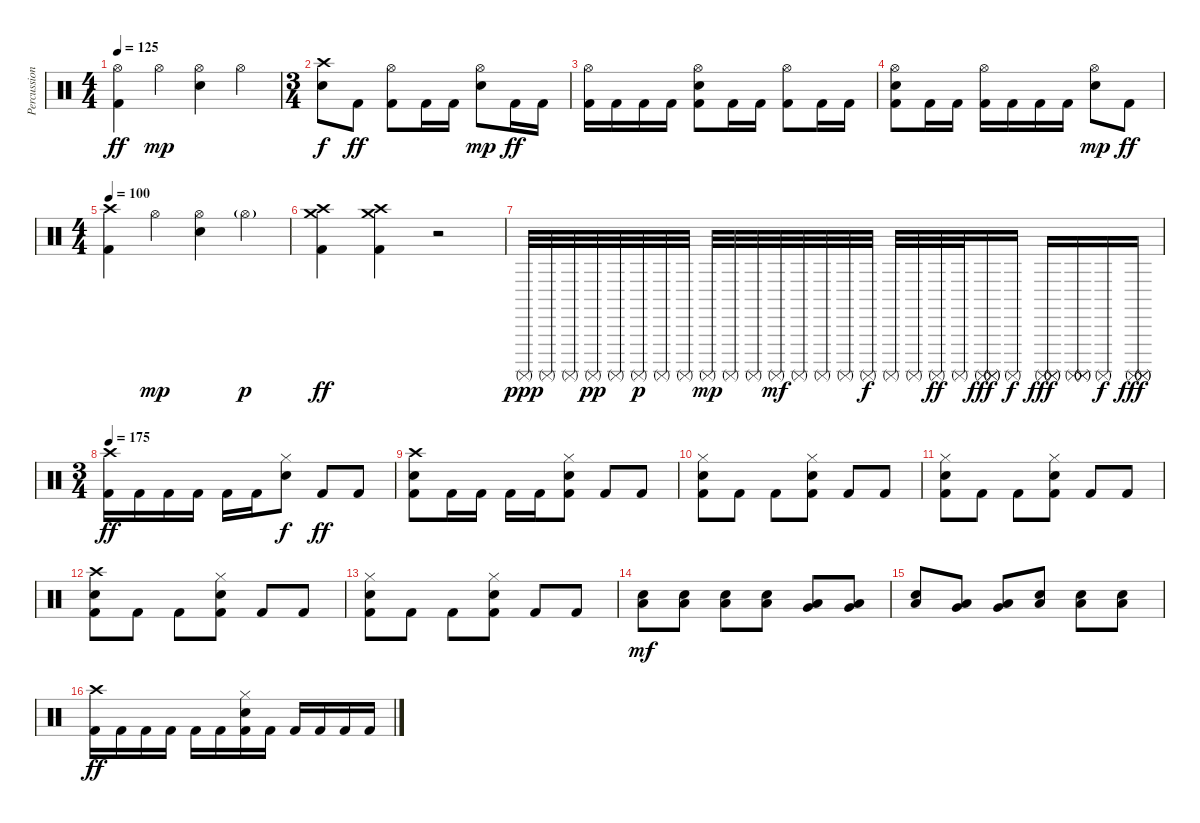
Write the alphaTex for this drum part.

\track ("Percussion" "Percussion") {instrument percussion}
\staff {score}
\articulation defaults
\ts (4 4)
\tempo 125
\clef neutral
\ks c
("Hi-Hat (open)" "Kick (hit) 2").4{dy ff} "Hi-Hat (open)".4{dy mp} ("Hi-Hat (open)" "Snare (hit) 2").4 "Hi-Hat (open)".4 |
\ts (3 4)
("Crash high (hit)" "Snare (hit) 2").8{dy f} "Kick (hit) 2".8{dy ff} ("Hi-Hat (open)" "Kick (hit) 2").8 "Kick (hit) 2".16 "Kick (hit) 2".16 ("Hi-Hat (open)" "Snare (hit) 2").8{dy mp} "Kick (hit) 2".16{dy ff} "Kick (hit) 2".16 |
("Hi-Hat (open)" "Kick (hit) 2").16 "Kick (hit) 2".16 "Kick (hit) 2".16 "Kick (hit) 2".16 ("Hi-Hat (open)" "Snare (hit) 2" "Kick (hit) 2").8 "Kick (hit) 2".16 "Kick (hit) 2".16 ("Hi-Hat (open)" "Kick (hit) 2").8 "Kick (hit) 2".16 "Kick (hit) 2".16 |
("Hi-Hat (open)" "Snare (hit) 2" "Kick (hit) 2").8 "Kick (hit) 2".16 "Kick (hit) 2".16 ("Hi-Hat (open)" "Kick (hit) 2").16 "Kick (hit) 2".16 "Kick (hit) 2".16 "Kick (hit) 2".16 ("Hi-Hat (open)" "Snare (hit) 2").8{dy mp} "Kick (hit) 2".8{dy ff} |
\ts (4 4)
\tempo 100
("Crash high (hit)" "Kick (hit) 2").4 "Hi-Hat (open)".4{dy mp} ("Hi-Hat (open)" "Snare (hit) 2").4 "Hi-Hat (open)"{g}.4{dy p} |
("Crash medium (hit)" "Crash high (hit)" "Kick (hit) 2").4{dy ff} ("Crash medium (hit)" "Crash high (hit)" "Kick (hit) 2").4 r.2 |
"Surdo (mute)".32{dy ppp} "Surdo (mute)".32 "Surdo (mute)".32 "Surdo (mute)".32{dy pp} "Surdo (mute)".32 "Surdo (mute)".32{dy p} "Surdo (mute)".32 "Surdo (mute)".32 "Surdo (mute)".32{dy mp} "Surdo (mute)".32 "Surdo (mute)".32 "Surdo (mute)".32{dy mf} "Surdo (mute)".32 "Surdo (mute)".32 "Surdo (mute)".32 "Surdo (mute)".32{dy f} "Surdo (mute)".32 "Surdo (mute)".32 "Surdo (mute)".32{dy ff} "Surdo (mute)".32 ("Surdo (mute)" "Surdo (mute)" "Surdo (mute)").16{dy fff} "Surdo (mute)".16{dy f} ("Surdo (mute)" "Surdo (mute)" "Surdo (mute)").16{dy fff} ("Surdo (mute)" "Surdo (mute)" "Surdo (mute)").16 "Surdo (mute)".16{dy f} ("Surdo (mute)" "Surdo (mute)" "Surdo (mute)").16{dy fff} |
\ts (3 4)
\tempo 175
("Crash high (hit)" "Kick (hit) 2").16{dy ff volume 12} "Kick (hit) 2".16 "Kick (hit) 2".16 "Kick (hit) 2".16 "Kick (hit) 2".16 "Kick (hit) 2".16 ("Hi-Hat (closed)" "Snare (hit) 2").8{dy f} "Kick (hit) 2".8{dy ff} "Kick (hit) 2".8 |
("Crash high (hit)" "Snare (hit) 2" "Kick (hit) 2").8 "Kick (hit) 2".16 "Kick (hit) 2".16 "Kick (hit) 2".16 "Kick (hit) 2".16 ("Hi-Hat (closed)" "Snare (hit) 2" "Kick (hit) 2").8 "Kick (hit) 2".8 "Kick (hit) 2".8 |
("Hi-Hat (closed)" "Snare (hit) 2" "Kick (hit) 2").8 "Kick (hit) 2".8 "Kick (hit) 2".8 ("Hi-Hat (closed)" "Snare (hit) 2" "Kick (hit) 2").8 "Kick (hit) 2".8 "Kick (hit) 2".8 |
("Hi-Hat (closed)" "Snare (hit) 2" "Kick (hit) 2").8 "Kick (hit) 2".8 "Kick (hit) 2".8 ("Hi-Hat (closed)" "Snare (hit) 2" "Kick (hit) 2").8 "Kick (hit) 2".8 "Kick (hit) 2".8 |
("Crash high (hit)" "Snare (hit) 2" "Kick (hit) 2").8 "Kick (hit) 2".8 "Kick (hit) 2".8 ("Hi-Hat (closed)" "Snare (hit) 2" "Kick (hit) 2").8 "Kick (hit) 2".8 "Kick (hit) 2".8 |
("Hi-Hat (closed)" "Snare (hit) 2" "Kick (hit) 2").8 "Kick (hit) 2".8 "Kick (hit) 2".8 ("Hi-Hat (closed)" "Snare (hit) 2" "Kick (hit) 2").8 "Kick (hit) 2".8 "Kick (hit) 2".8 |
("Low Floor Tom (hit)" "Snare (hit) 2").8{dy mf} ("Low Floor Tom (hit)" "Snare (hit) 2").8 ("Low Floor Tom (hit)" "Snare (hit) 2").8 ("Low Floor Tom (hit)" "Snare (hit) 2").8 ("Very Low Tom (hit)" "Low Floor Tom (hit)").8 ("Very Low Tom (hit)" "Low Floor Tom (hit)").8 |
("Low Floor Tom (hit)" "Snare (hit) 2").8 ("Very Low Tom (hit)" "Low Floor Tom (hit)").8 ("Very Low Tom (hit)" "Low Floor Tom (hit)").8 ("Low Floor Tom (hit)" "Snare (hit) 2").8 ("Low Floor Tom (hit)" "Snare (hit) 2").8 ("Low Floor Tom (hit)" "Snare (hit) 2").8 |
("Crash high (hit)" "Kick (hit) 2").16{dy ff} "Kick (hit) 2".16 "Kick (hit) 2".16 "Kick (hit) 2".16 "Kick (hit) 2".16 "Kick (hit) 2".16 ("Hi-Hat (closed)" "Snare (hit) 2" "Kick (hit) 2").16 "Kick (hit) 2".16 "Kick (hit) 2".16 "Kick (hit) 2".16 "Kick (hit) 2".16 "Kick (hit) 2".16
